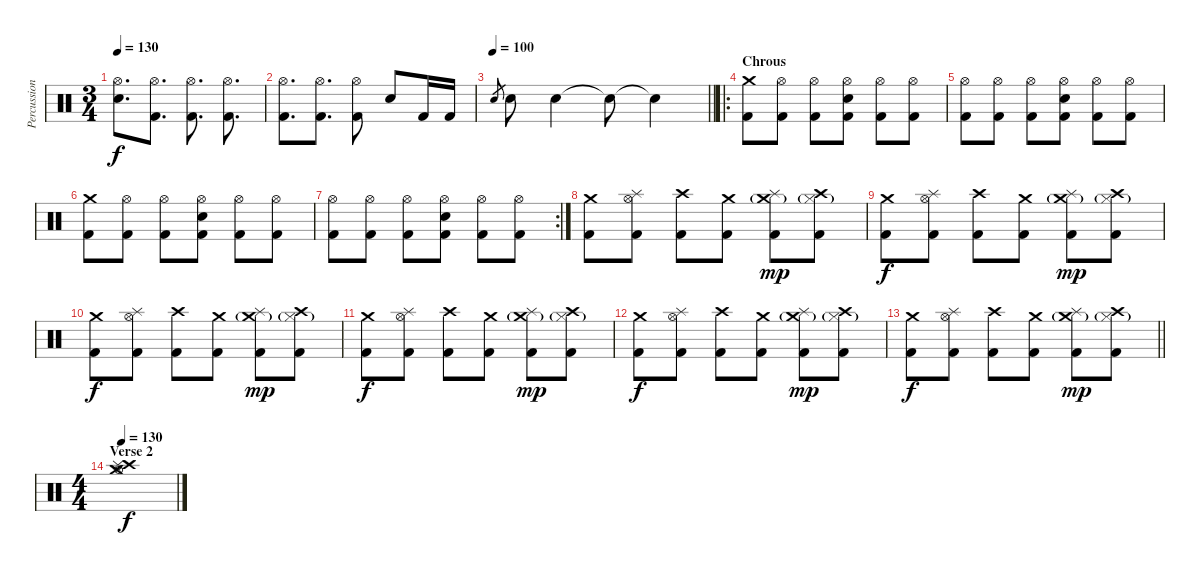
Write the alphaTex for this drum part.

\track ("Percussion" "Percussion") {instrument percussion}
\staff {score}
\articulation defaults
\ts (3 4)
\tempo 130
\clef neutral
\ks c
("Hi-Hat (open)" "Snare (hit) 2").8{d dy f} ("Hi-Hat (open)" "Kick (hit) 2").8{d} ("Hi-Hat (open)" "Kick (hit) 2").8{d} ("Hi-Hat (open)" "Kick (hit) 2").8{d} |
("Hi-Hat (open)" "Kick (hit) 2").8{d} ("Hi-Hat (open)" "Kick (hit) 2").8{d} ("Hi-Hat (open)" "Kick (hit) 2").8 "Snare (hit) 2".8 "Kick (hit) 2".16 "Kick (hit) 2".16 |
\tempo 100
\barLineRight lightlight "Snare (hit) 2".8{gr} "Snare (hit) 2".8 "Snare (hit) 2".4 "Snare (hit)"{t}.8 "Snare (hit)"{t}.4
|
\ro
\section ("" "Chrous")
("Crash medium (hit)" "Kick (hit) 2").8 ("Hi-Hat (open)" "Kick (hit) 2").8 ("Hi-Hat (open)" "Kick (hit) 2").8 ("Hi-Hat (open)" "Snare (hit) 2" "Kick (hit) 2").8 ("Hi-Hat (open)" "Kick (hit) 2").8 ("Hi-Hat (open)" "Kick (hit) 2").8 |
("Hi-Hat (open)" "Kick (hit) 2").8 ("Hi-Hat (open)" "Kick (hit) 2").8 ("Hi-Hat (open)" "Kick (hit) 2").8 ("Hi-Hat (open)" "Snare (hit) 2" "Kick (hit) 2").8 ("Hi-Hat (open)" "Kick (hit) 2").8 ("Hi-Hat (open)" "Kick (hit) 2").8 |
("Crash medium (hit)" "Kick (hit) 2").8 ("Hi-Hat (open)" "Kick (hit) 2").8 ("Hi-Hat (open)" "Kick (hit) 2").8 ("Hi-Hat (open)" "Snare (hit) 2" "Kick (hit) 2").8 ("Hi-Hat (open)" "Kick (hit) 2").8 ("Hi-Hat (open)" "Kick (hit) 2").8 |
\rc 2
("Hi-Hat (open)" "Kick (hit) 2").8 ("Hi-Hat (open)" "Kick (hit) 2").8 ("Hi-Hat (open)" "Kick (hit) 2").8 ("Hi-Hat (open)" "Snare (hit) 2" "Kick (hit) 2").8 ("Hi-Hat (open)" "Kick (hit) 2").8 ("Hi-Hat (open)" "Kick (hit) 2").8 |
("Crash medium (hit)" "Kick (hit) 2").8 ("Splash (hit)" "Hi-Hat (open)" "Kick (hit) 2").8 ("Crash high (hit)" "Kick (hit) 2").8 ("Crash medium (hit)" "Kick (hit) 2").8 ("Splash (hit)" "Crash medium (hit)"{g} "Kick (hit) 2").8{dy mp} ("Hi-Hat (closed)"{g} "Crash high (hit)" "Kick (hit) 2").8 |
("Crash medium (hit)" "Kick (hit) 2").8{dy f} ("Splash (hit)" "Hi-Hat (open)" "Kick (hit) 2").8 ("Crash high (hit)" "Kick (hit) 2").8 ("Crash medium (hit)" "Kick (hit) 2").8 ("Splash (hit)" "Crash medium (hit)"{g} "Kick (hit) 2").8{dy mp} ("Hi-Hat (closed)"{g} "Crash high (hit)" "Kick (hit) 2").8 |
("Crash medium (hit)" "Kick (hit) 2").8{dy f} ("Splash (hit)" "Hi-Hat (open)" "Kick (hit) 2").8 ("Crash high (hit)" "Kick (hit) 2").8 ("Crash medium (hit)" "Kick (hit) 2").8 ("Splash (hit)" "Crash medium (hit)"{g} "Kick (hit) 2").8{dy mp} ("Hi-Hat (closed)"{g} "Crash high (hit)" "Kick (hit) 2").8 |
("Crash medium (hit)" "Kick (hit) 2").8{dy f} ("Splash (hit)" "Hi-Hat (open)" "Kick (hit) 2").8 ("Crash high (hit)" "Kick (hit) 2").8 ("Crash medium (hit)" "Kick (hit) 2").8 ("Splash (hit)" "Crash medium (hit)"{g} "Kick (hit) 2").8{dy mp} ("Hi-Hat (closed)"{g} "Crash high (hit)" "Kick (hit) 2").8 |
("Crash medium (hit)" "Kick (hit) 2").8{dy f} ("Splash (hit)" "Hi-Hat (open)" "Kick (hit) 2").8 ("Crash high (hit)" "Kick (hit) 2").8 ("Crash medium (hit)" "Kick (hit) 2").8 ("Splash (hit)" "Crash medium (hit)"{g} "Kick (hit) 2").8{dy mp} ("Hi-Hat (closed)"{g} "Crash high (hit)" "Kick (hit) 2").8 |
\barLineRight lightlight
("Crash medium (hit)" "Kick (hit) 2").8{dy f} ("Splash (hit)" "Hi-Hat (open)" "Kick (hit) 2").8 ("Crash high (hit)" "Kick (hit) 2").8 ("Crash medium (hit)" "Kick (hit) 2").8 ("Splash (hit)" "Crash medium (hit)"{g} "Kick (hit) 2").8{dy mp} ("Hi-Hat (closed)"{g} "Crash high (hit)" "Kick (hit) 2").8 |
\ts (4 4)
\section ("" "Verse 2")
\tempo 130
("Crash medium (hit)" "Crash high (hit)" "Hi-Hat (open)" "Splash (hit)").1{dy f}
